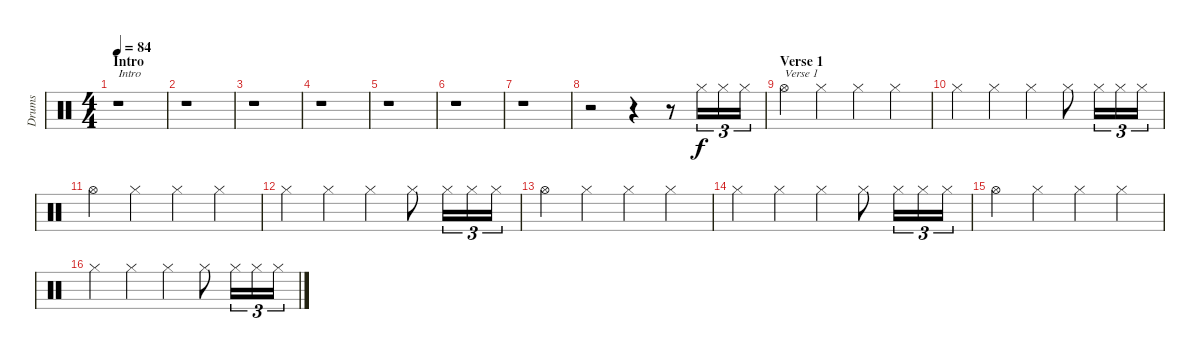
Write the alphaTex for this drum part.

\track ("Drums" "Drums") {instrument percussion}
\staff {score}
\articulation defaults
\ts (4 4)
\section ("" "Intro")
\tempo 84
\clef neutral
\ks c
r.1{txt "Intro" dy f} |
r.1 |
r.1 |
r.1 |
r.1 |
r.1 |
r.1 |
r.2 r.4 r.8 "Hi-Hat (closed)".16{tu (3 2)} "Hi-Hat (closed)".16{tu (3 2)} "Hi-Hat (closed)".16{tu (3 2)} |
\section ("" "Verse 1")
"Hi-Hat (open)".4{txt "Verse 1"} "Hi-Hat (closed)".4 "Hi-Hat (closed)".4 "Hi-Hat (closed)".4 |
"Hi-Hat (closed)".4 "Hi-Hat (closed)".4 "Hi-Hat (closed)".4 "Hi-Hat (closed)".8 "Hi-Hat (closed)".16{tu (3 2)} "Hi-Hat (closed)".16{tu (3 2)} "Hi-Hat (closed)".16{tu (3 2)} |
"Hi-Hat (open)".4 "Hi-Hat (closed)".4 "Hi-Hat (closed)".4 "Hi-Hat (closed)".4 |
"Hi-Hat (closed)".4 "Hi-Hat (closed)".4 "Hi-Hat (closed)".4 "Hi-Hat (closed)".8 "Hi-Hat (closed)".16{tu (3 2)} "Hi-Hat (closed)".16{tu (3 2)} "Hi-Hat (closed)".16{tu (3 2)} |
"Hi-Hat (open)".4 "Hi-Hat (closed)".4 "Hi-Hat (closed)".4 "Hi-Hat (closed)".4 |
"Hi-Hat (closed)".4 "Hi-Hat (closed)".4 "Hi-Hat (closed)".4 "Hi-Hat (closed)".8 "Hi-Hat (closed)".16{tu (3 2)} "Hi-Hat (closed)".16{tu (3 2)} "Hi-Hat (closed)".16{tu (3 2)} |
"Hi-Hat (open)".4 "Hi-Hat (closed)".4 "Hi-Hat (closed)".4 "Hi-Hat (closed)".4 |
"Hi-Hat (closed)".4 "Hi-Hat (closed)".4 "Hi-Hat (closed)".4 "Hi-Hat (closed)".8 "Hi-Hat (closed)".16{tu (3 2)} "Hi-Hat (closed)".16{tu (3 2)} "Hi-Hat (closed)".16{tu (3 2)}
